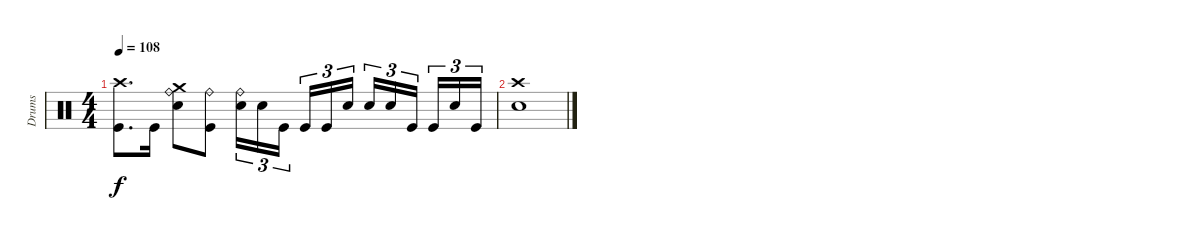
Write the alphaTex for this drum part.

\track ("Drums" "Drums") {instrument percussion}
\staff {score}
\articulation defaults
\ts (4 4)
\tempo 108
\clef neutral
\ks c
("Crash high (hit)" "Kick (hit)").8{d dy f} "Kick (hit)".16 ("Crash medium (hit)" "Ride (bell)" "Electric Snare (hit)").8 ("Ride (bell)" "Kick (hit)").8 ("Ride (bell)" "Electric Snare (hit)").16{tu (3 2)} "Electric Snare (hit)".16{tu (3 2)} "Kick (hit)".16{tu (3 2) beam splitsecondary} "Kick (hit)".16{tu (3 2)} "Kick (hit)".16{tu (3 2)} "Electric Snare (hit)".16{tu (3 2)} "Electric Snare (hit)".16{tu (3 2)} "Electric Snare (hit)".16{tu (3 2)} "Kick (hit)".16{tu (3 2) beam splitsecondary} "Kick (hit)".16{tu (3 2)} "Electric Snare (hit)".16{tu (3 2)} "Kick (hit)".16{tu (3 2)} |
("Crash high (hit)" "Electric Snare (hit)").1
